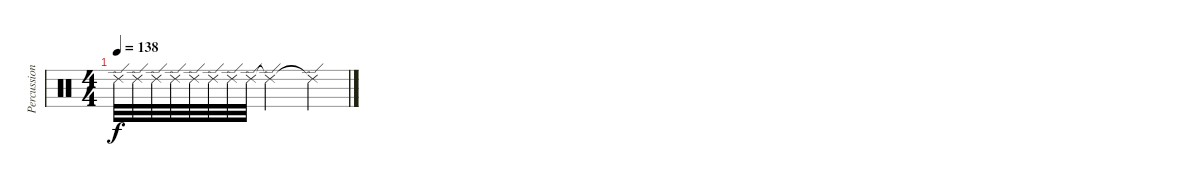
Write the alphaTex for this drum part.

\track ("Percussions Karim" "Percussion") {instrument percussion}
\staff {score}
\articulation defaults
\ts (4 4)
\tempo 138
\clef neutral
\ks c "Ride (edge) 2".32{dy f} "Ride (edge) 2".32 "Ride (edge) 2".32 "Ride (edge) 2".32 "Ride (edge) 2".32 "Ride (edge) 2".32 "Ride (edge) 2".32 "Ride (edge) 2".32 "Ride (edge) 2"{t}.2 "Ride (edge) 2"{t}.4
